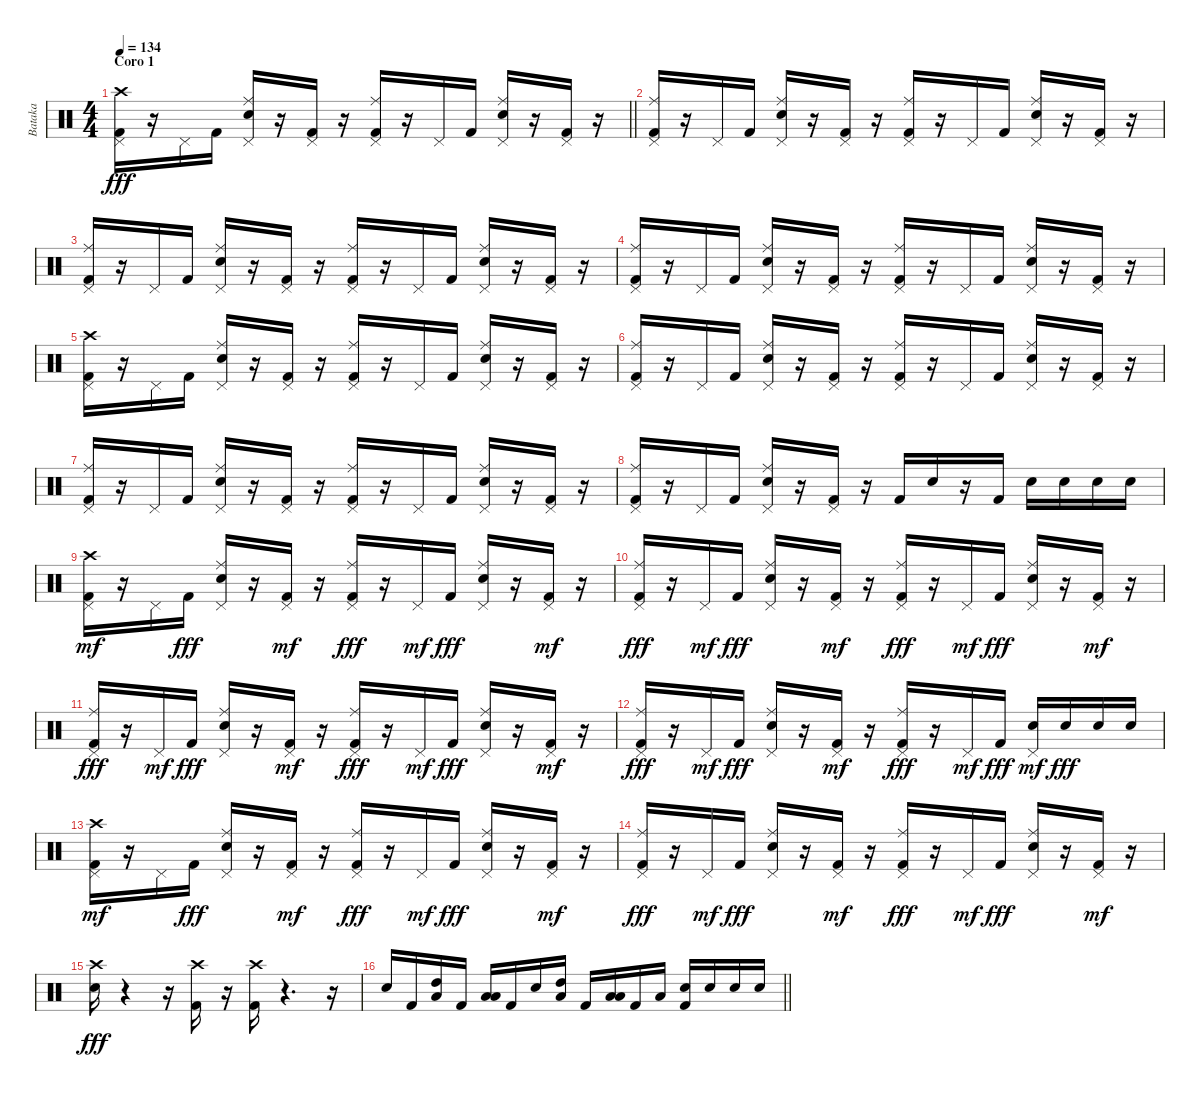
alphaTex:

\track ("Bataka" "Bataka") {instrument percussion}
\staff {score}
\articulation defaults
\ts (4 4)
\section ("" "Coro 1")
\tempo 134
\clef neutral
\barLineRight lightlight
\ks c
("Pedal Hi-Hat (hit)" "Kick (hit) 2" "Crash high (hit)").16{dy fff} r.16 "Pedal Hi-Hat (hit)".16 "Kick (hit) 2".16 ("Pedal Hi-Hat (hit)" "Snare (hit) 2" "Ride (middle)").16 r.16 ("Pedal Hi-Hat (hit)" "Kick (hit) 2").16 r.16 ("Pedal Hi-Hat (hit)" "Kick (hit) 2" "Ride (middle)").16 r.16 "Pedal Hi-Hat (hit)".16 "Kick (hit) 2".16 ("Pedal Hi-Hat (hit)" "Snare (hit) 2" "Ride (middle)").16 r.16 ("Pedal Hi-Hat (hit)" "Kick (hit) 2").16 r.16 |
("Pedal Hi-Hat (hit)" "Kick (hit) 2" "Ride (middle)").16 r.16 "Pedal Hi-Hat (hit)".16 "Kick (hit) 2".16 ("Pedal Hi-Hat (hit)" "Snare (hit) 2" "Ride (middle)").16 r.16 ("Pedal Hi-Hat (hit)" "Kick (hit) 2").16 r.16 ("Pedal Hi-Hat (hit)" "Kick (hit) 2" "Ride (middle)").16 r.16 "Pedal Hi-Hat (hit)".16 "Kick (hit) 2".16 ("Pedal Hi-Hat (hit)" "Snare (hit) 2" "Ride (middle)").16 r.16 ("Pedal Hi-Hat (hit)" "Kick (hit) 2").16 r.16 |
("Pedal Hi-Hat (hit)" "Kick (hit) 2" "Ride (middle)").16 r.16 "Pedal Hi-Hat (hit)".16 "Kick (hit) 2".16 ("Pedal Hi-Hat (hit)" "Snare (hit) 2" "Ride (middle)").16 r.16 ("Pedal Hi-Hat (hit)" "Kick (hit) 2").16 r.16 ("Pedal Hi-Hat (hit)" "Kick (hit) 2" "Ride (middle)").16 r.16 "Pedal Hi-Hat (hit)".16 "Kick (hit) 2".16 ("Pedal Hi-Hat (hit)" "Snare (hit) 2" "Ride (middle)").16 r.16 ("Pedal Hi-Hat (hit)" "Kick (hit) 2").16 r.16 |
("Pedal Hi-Hat (hit)" "Kick (hit) 2" "Ride (middle)").16 r.16 "Pedal Hi-Hat (hit)".16 "Kick (hit) 2".16 ("Pedal Hi-Hat (hit)" "Snare (hit) 2" "Ride (middle)").16 r.16 ("Pedal Hi-Hat (hit)" "Kick (hit) 2").16 r.16 ("Pedal Hi-Hat (hit)" "Kick (hit) 2" "Ride (middle)").16 r.16 "Pedal Hi-Hat (hit)".16 "Kick (hit) 2".16 ("Pedal Hi-Hat (hit)" "Snare (hit) 2" "Ride (middle)").16 r.16 ("Pedal Hi-Hat (hit)" "Kick (hit) 2").16 r.16 |
("Pedal Hi-Hat (hit)" "Kick (hit) 2" "Crash high (hit)").16 r.16 "Pedal Hi-Hat (hit)".16 "Kick (hit) 2".16 ("Pedal Hi-Hat (hit)" "Snare (hit) 2" "Ride (middle)").16 r.16 ("Pedal Hi-Hat (hit)" "Kick (hit) 2").16 r.16 ("Pedal Hi-Hat (hit)" "Kick (hit) 2" "Ride (middle)").16 r.16 "Pedal Hi-Hat (hit)".16 "Kick (hit) 2".16 ("Pedal Hi-Hat (hit)" "Snare (hit) 2" "Ride (middle)").16 r.16 ("Pedal Hi-Hat (hit)" "Kick (hit) 2").16 r.16 |
("Pedal Hi-Hat (hit)" "Kick (hit) 2" "Ride (middle)").16 r.16 "Pedal Hi-Hat (hit)".16 "Kick (hit) 2".16 ("Pedal Hi-Hat (hit)" "Snare (hit) 2" "Ride (middle)").16 r.16 ("Pedal Hi-Hat (hit)" "Kick (hit) 2").16 r.16 ("Pedal Hi-Hat (hit)" "Kick (hit) 2" "Ride (middle)").16 r.16 "Pedal Hi-Hat (hit)".16 "Kick (hit) 2".16 ("Pedal Hi-Hat (hit)" "Snare (hit) 2" "Ride (middle)").16 r.16 ("Pedal Hi-Hat (hit)" "Kick (hit) 2").16 r.16 |
("Pedal Hi-Hat (hit)" "Kick (hit) 2" "Ride (middle)").16 r.16 "Pedal Hi-Hat (hit)".16 "Kick (hit) 2".16 ("Pedal Hi-Hat (hit)" "Snare (hit) 2" "Ride (middle)").16 r.16 ("Pedal Hi-Hat (hit)" "Kick (hit) 2").16 r.16 ("Pedal Hi-Hat (hit)" "Kick (hit) 2" "Ride (middle)").16 r.16 "Pedal Hi-Hat (hit)".16 "Kick (hit) 2".16 ("Pedal Hi-Hat (hit)" "Snare (hit) 2" "Ride (middle)").16 r.16 ("Pedal Hi-Hat (hit)" "Kick (hit) 2").16 r.16 |
("Pedal Hi-Hat (hit)" "Kick (hit) 2" "Ride (middle)").16 r.16 "Pedal Hi-Hat (hit)".16 "Kick (hit) 2".16 ("Pedal Hi-Hat (hit)" "Snare (hit) 2" "Ride (middle)").16 r.16 ("Pedal Hi-Hat (hit)" "Kick (hit) 2").16 r.16 "Kick (hit) 2".16 "Snare (hit) 2".16 r.16 "Kick (hit) 2".16 "Snare (hit) 2".16 "Snare (hit) 2".16 "Snare (hit) 2".16 "Snare (hit) 2".16 |
("Kick (hit) 2" "Crash high (hit)" "Pedal Hi-Hat (hit)").16{dy mf} r.16 "Pedal Hi-Hat (hit)".16 "Kick (hit) 2".16{dy fff} ("Snare (hit) 2" "Pedal Hi-Hat (hit)" "Ride (middle)").16 r.16 ("Kick (hit) 2" "Pedal Hi-Hat (hit)").16{dy mf} r.16 ("Kick (hit) 2" "Pedal Hi-Hat (hit)" "Ride (middle)").16{dy fff} r.16 "Pedal Hi-Hat (hit)".16{dy mf} "Kick (hit) 2".16{dy fff} ("Snare (hit) 2" "Pedal Hi-Hat (hit)" "Ride (middle)").16 r.16 ("Kick (hit) 2" "Pedal Hi-Hat (hit)").16{dy mf} r.16 |
("Kick (hit) 2" "Pedal Hi-Hat (hit)" "Ride (middle)").16{dy fff} r.16 "Pedal Hi-Hat (hit)".16{dy mf} "Kick (hit) 2".16{dy fff} ("Snare (hit) 2" "Pedal Hi-Hat (hit)" "Ride (middle)").16 r.16 ("Kick (hit) 2" "Pedal Hi-Hat (hit)").16{dy mf} r.16 ("Kick (hit) 2" "Pedal Hi-Hat (hit)" "Ride (middle)").16{dy fff} r.16 "Pedal Hi-Hat (hit)".16{dy mf} "Kick (hit) 2".16{dy fff} ("Snare (hit) 2" "Pedal Hi-Hat (hit)" "Ride (middle)").16 r.16 ("Kick (hit) 2" "Pedal Hi-Hat (hit)").16{dy mf} r.16 |
("Kick (hit) 2" "Pedal Hi-Hat (hit)" "Ride (middle)").16{dy fff} r.16 "Pedal Hi-Hat (hit)".16{dy mf} "Kick (hit) 2".16{dy fff} ("Snare (hit) 2" "Pedal Hi-Hat (hit)" "Ride (middle)").16 r.16 ("Kick (hit) 2" "Pedal Hi-Hat (hit)").16{dy mf} r.16 ("Kick (hit) 2" "Pedal Hi-Hat (hit)" "Ride (middle)").16{dy fff} r.16 "Pedal Hi-Hat (hit)".16{dy mf} "Kick (hit) 2".16{dy fff} ("Snare (hit) 2" "Pedal Hi-Hat (hit)" "Ride (middle)").16 r.16 ("Kick (hit) 2" "Pedal Hi-Hat (hit)").16{dy mf} r.16 |
("Kick (hit) 2" "Pedal Hi-Hat (hit)" "Ride (middle)").16{dy fff} r.16 "Pedal Hi-Hat (hit)".16{dy mf} "Kick (hit) 2".16{dy fff} ("Snare (hit) 2" "Pedal Hi-Hat (hit)" "Ride (middle)").16 r.16 ("Kick (hit) 2" "Pedal Hi-Hat (hit)").16{dy mf} r.16 ("Kick (hit) 2" "Pedal Hi-Hat (hit)" "Ride (middle)").16{dy fff} r.16 "Pedal Hi-Hat (hit)".16{dy mf} "Kick (hit) 2".16{dy fff} ("Snare (hit) 2" "Pedal Hi-Hat (hit)").16{dy mf} "Snare (hit) 2".16{dy fff} "Snare (hit) 2".16 "Snare (hit) 2".16 |
("Kick (hit) 2" "Crash high (hit)" "Pedal Hi-Hat (hit)").16{dy mf} r.16 "Pedal Hi-Hat (hit)".16 "Kick (hit) 2".16{dy fff} ("Snare (hit) 2" "Pedal Hi-Hat (hit)" "Ride (middle)").16 r.16 ("Kick (hit) 2" "Pedal Hi-Hat (hit)").16{dy mf} r.16 ("Kick (hit) 2" "Pedal Hi-Hat (hit)" "Ride (middle)").16{dy fff} r.16 "Pedal Hi-Hat (hit)".16{dy mf} "Kick (hit) 2".16{dy fff} ("Snare (hit) 2" "Pedal Hi-Hat (hit)" "Ride (middle)").16 r.16 ("Kick (hit) 2" "Pedal Hi-Hat (hit)").16{dy mf} r.16 |
("Kick (hit) 2" "Pedal Hi-Hat (hit)" "Ride (middle)").16{dy fff} r.16 "Pedal Hi-Hat (hit)".16{dy mf} "Kick (hit) 2".16{dy fff} ("Snare (hit) 2" "Pedal Hi-Hat (hit)" "Ride (middle)").16 r.16 ("Kick (hit) 2" "Pedal Hi-Hat (hit)").16{dy mf} r.16 ("Kick (hit) 2" "Pedal Hi-Hat (hit)" "Ride (middle)").16{dy fff} r.16 "Pedal Hi-Hat (hit)".16{dy mf} "Kick (hit) 2".16{dy fff} ("Snare (hit) 2" "Pedal Hi-Hat (hit)" "Ride (middle)").16 r.16 ("Kick (hit) 2" "Pedal Hi-Hat (hit)").16{dy mf} r.16 |
("Snare (hit) 2" "Crash high (hit)").16{dy fff} r.4 r.16 ("Crash high (hit)" "Kick (hit) 2").16 r.16 ("Crash high (hit)" "Kick (hit) 2").16 r.4{d} r.16 |
\barLineRight lightlight "Snare (hit) 2".16 "Kick (hit) 2".16
("High Tom (hit)" "Low Floor Tom (hit)").16 "Kick (hit) 2".16 ("Low Floor Tom (hit)" "Low Tom (hit)").16 "Kick (hit) 2".16 "Snare (hit) 2".16 ("High Tom (hit)" "Low Floor Tom (hit)").16 "Kick (hit) 2".16 ("Low Tom (hit)" "Low Floor Tom (hit)").16 "Kick (hit) 2".16 "Low Floor Tom (hit)".16 ("Snare (hit) 2" "Kick (hit) 2").16 "Snare (hit) 2".16 "Snare (hit) 2".16 "Snare (hit) 2".16
